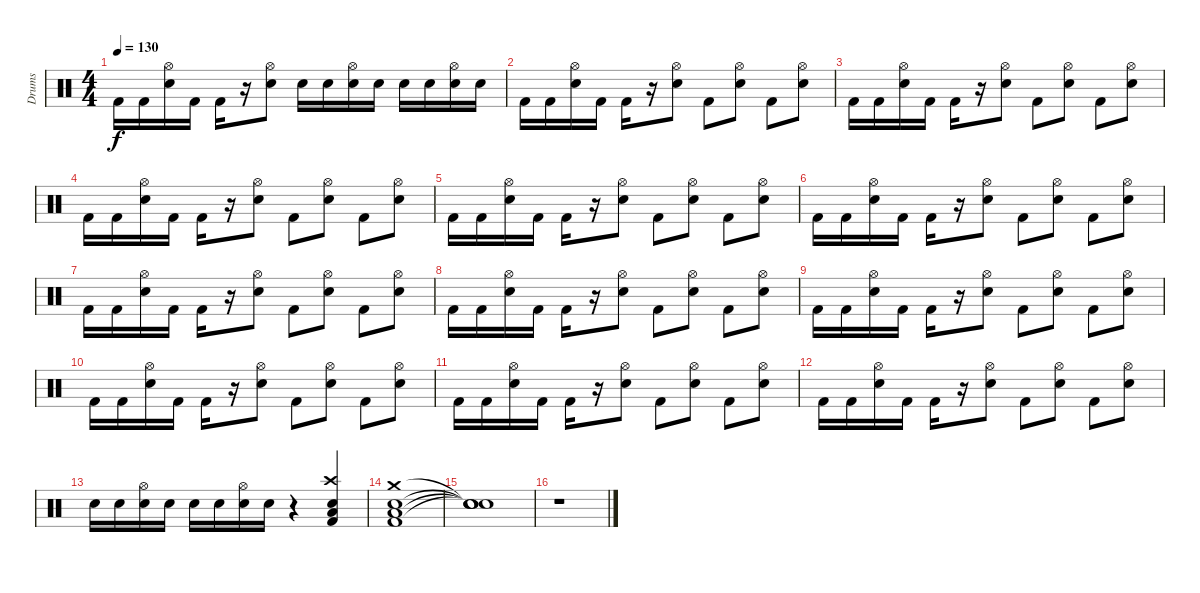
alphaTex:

\track ("Drums" "Drums") {instrument percussion}
\staff {score}
\articulation defaults
\ts (4 4)
\tempo 130
\clef neutral
\ks c "Kick (hit) 2".16{dy f} "Kick (hit) 2".16
("Snare (hit) 2" "Hi-Hat (open)").16 "Kick (hit) 2".16 "Kick (hit) 2".16 r.16 ("Snare (hit) 2" "Hi-Hat (open)").8 "Snare (hit) 2".16 "Snare (hit) 2".16 ("Snare (hit) 2" "Hi-Hat (open)").16 "Snare (hit) 2".16 "Snare (hit) 2".16 "Snare (hit) 2".16 ("Snare (hit) 2" "Hi-Hat (open)").16 "Snare (hit) 2".16 |
"Kick (hit) 2".16 "Kick (hit) 2".16 ("Snare (hit) 2" "Hi-Hat (open)").16 "Kick (hit) 2".16 "Kick (hit) 2".16 r.16 ("Snare (hit) 2" "Hi-Hat (open)").8 "Kick (hit) 2".8 ("Snare (hit) 2" "Hi-Hat (open)").8 "Kick (hit) 2".8 ("Snare (hit) 2" "Hi-Hat (open)").8 |
"Kick (hit) 2".16 "Kick (hit) 2".16 ("Snare (hit) 2" "Hi-Hat (open)").16 "Kick (hit) 2".16 "Kick (hit) 2".16 r.16 ("Snare (hit) 2" "Hi-Hat (open)").8 "Kick (hit) 2".8 ("Snare (hit) 2" "Hi-Hat (open)").8 "Kick (hit) 2".8 ("Snare (hit) 2" "Hi-Hat (open)").8 |
"Kick (hit) 2".16 "Kick (hit) 2".16 ("Snare (hit) 2" "Hi-Hat (open)").16 "Kick (hit) 2".16 "Kick (hit) 2".16 r.16 ("Snare (hit) 2" "Hi-Hat (open)").8 "Kick (hit) 2".8 ("Snare (hit) 2" "Hi-Hat (open)").8 "Kick (hit) 2".8 ("Snare (hit) 2" "Hi-Hat (open)").8 |
"Kick (hit) 2".16 "Kick (hit) 2".16 ("Snare (hit) 2" "Hi-Hat (open)").16 "Kick (hit) 2".16 "Kick (hit) 2".16 r.16 ("Snare (hit) 2" "Hi-Hat (open)").8 "Kick (hit) 2".8 ("Snare (hit) 2" "Hi-Hat (open)").8 "Kick (hit) 2".8 ("Snare (hit) 2" "Hi-Hat (open)").8 |
"Kick (hit) 2".16 "Kick (hit) 2".16 ("Snare (hit) 2" "Hi-Hat (open)").16 "Kick (hit) 2".16 "Kick (hit) 2".16 r.16 ("Snare (hit) 2" "Hi-Hat (open)").8 "Kick (hit) 2".8 ("Snare (hit) 2" "Hi-Hat (open)").8 "Kick (hit) 2".8 ("Snare (hit) 2" "Hi-Hat (open)").8 |
"Kick (hit) 2".16 "Kick (hit) 2".16 ("Snare (hit) 2" "Hi-Hat (open)").16 "Kick (hit) 2".16 "Kick (hit) 2".16 r.16 ("Snare (hit) 2" "Hi-Hat (open)").8 "Kick (hit) 2".8 ("Snare (hit) 2" "Hi-Hat (open)").8 "Kick (hit) 2".8 ("Snare (hit) 2" "Hi-Hat (open)").8 |
"Kick (hit) 2".16 "Kick (hit) 2".16 ("Snare (hit) 2" "Hi-Hat (open)").16 "Kick (hit) 2".16 "Kick (hit) 2".16 r.16 ("Snare (hit) 2" "Hi-Hat (open)").8 "Kick (hit) 2".8 ("Snare (hit) 2" "Hi-Hat (open)").8 "Kick (hit) 2".8 ("Snare (hit) 2" "Hi-Hat (open)").8 |
"Kick (hit) 2".16 "Kick (hit) 2".16 ("Snare (hit) 2" "Hi-Hat (open)").16 "Kick (hit) 2".16 "Kick (hit) 2".16 r.16 ("Snare (hit) 2" "Hi-Hat (open)").8 "Kick (hit) 2".8 ("Snare (hit) 2" "Hi-Hat (open)").8 "Kick (hit) 2".8 ("Snare (hit) 2" "Hi-Hat (open)").8 |
"Kick (hit) 2".16 "Kick (hit) 2".16 ("Snare (hit) 2" "Hi-Hat (open)").16 "Kick (hit) 2".16 "Kick (hit) 2".16 r.16 ("Snare (hit) 2" "Hi-Hat (open)").8 "Kick (hit) 2".8 ("Snare (hit) 2" "Hi-Hat (open)").8 "Kick (hit) 2".8 ("Snare (hit) 2" "Hi-Hat (open)").8 |
"Kick (hit) 2".16 "Kick (hit) 2".16 ("Snare (hit) 2" "Hi-Hat (open)").16 "Kick (hit) 2".16 "Kick (hit) 2".16 r.16 ("Snare (hit) 2" "Hi-Hat (open)").8 "Kick (hit) 2".8 ("Snare (hit) 2" "Hi-Hat (open)").8 "Kick (hit) 2".8 ("Snare (hit) 2" "Hi-Hat (open)").8 |
"Kick (hit) 2".16 "Kick (hit) 2".16 ("Snare (hit) 2" "Hi-Hat (open)").16 "Kick (hit) 2".16 "Kick (hit) 2".16 r.16 ("Snare (hit) 2" "Hi-Hat (open)").8 "Kick (hit) 2".8 ("Snare (hit) 2" "Hi-Hat (open)").8 "Kick (hit) 2".8 ("Snare (hit) 2" "Hi-Hat (open)").8 |
"Snare (hit) 2".16 "Snare (hit) 2".16 ("Snare (hit) 2" "Hi-Hat (open)").16 "Snare (hit) 2".16 "Snare (hit) 2".16 "Snare (hit) 2".16 ("Snare (hit) 2" "Hi-Hat (open)").16 "Snare (hit) 2".16 r.4 ("Kick (hit) 2" "Crash high (hit)" "Snare (hit) 2" "Low Floor Tom (hit)").4 |
("Kick (hit) 2" "Crash medium (hit)" "Snare (hit) 2" "Low Floor Tom (hit)").1 |
("Snare (hit)"{t} "Snare (hit)"{t} "Snare (hit)"{t} "Snare (hit)"{t}).1 |
r.1
